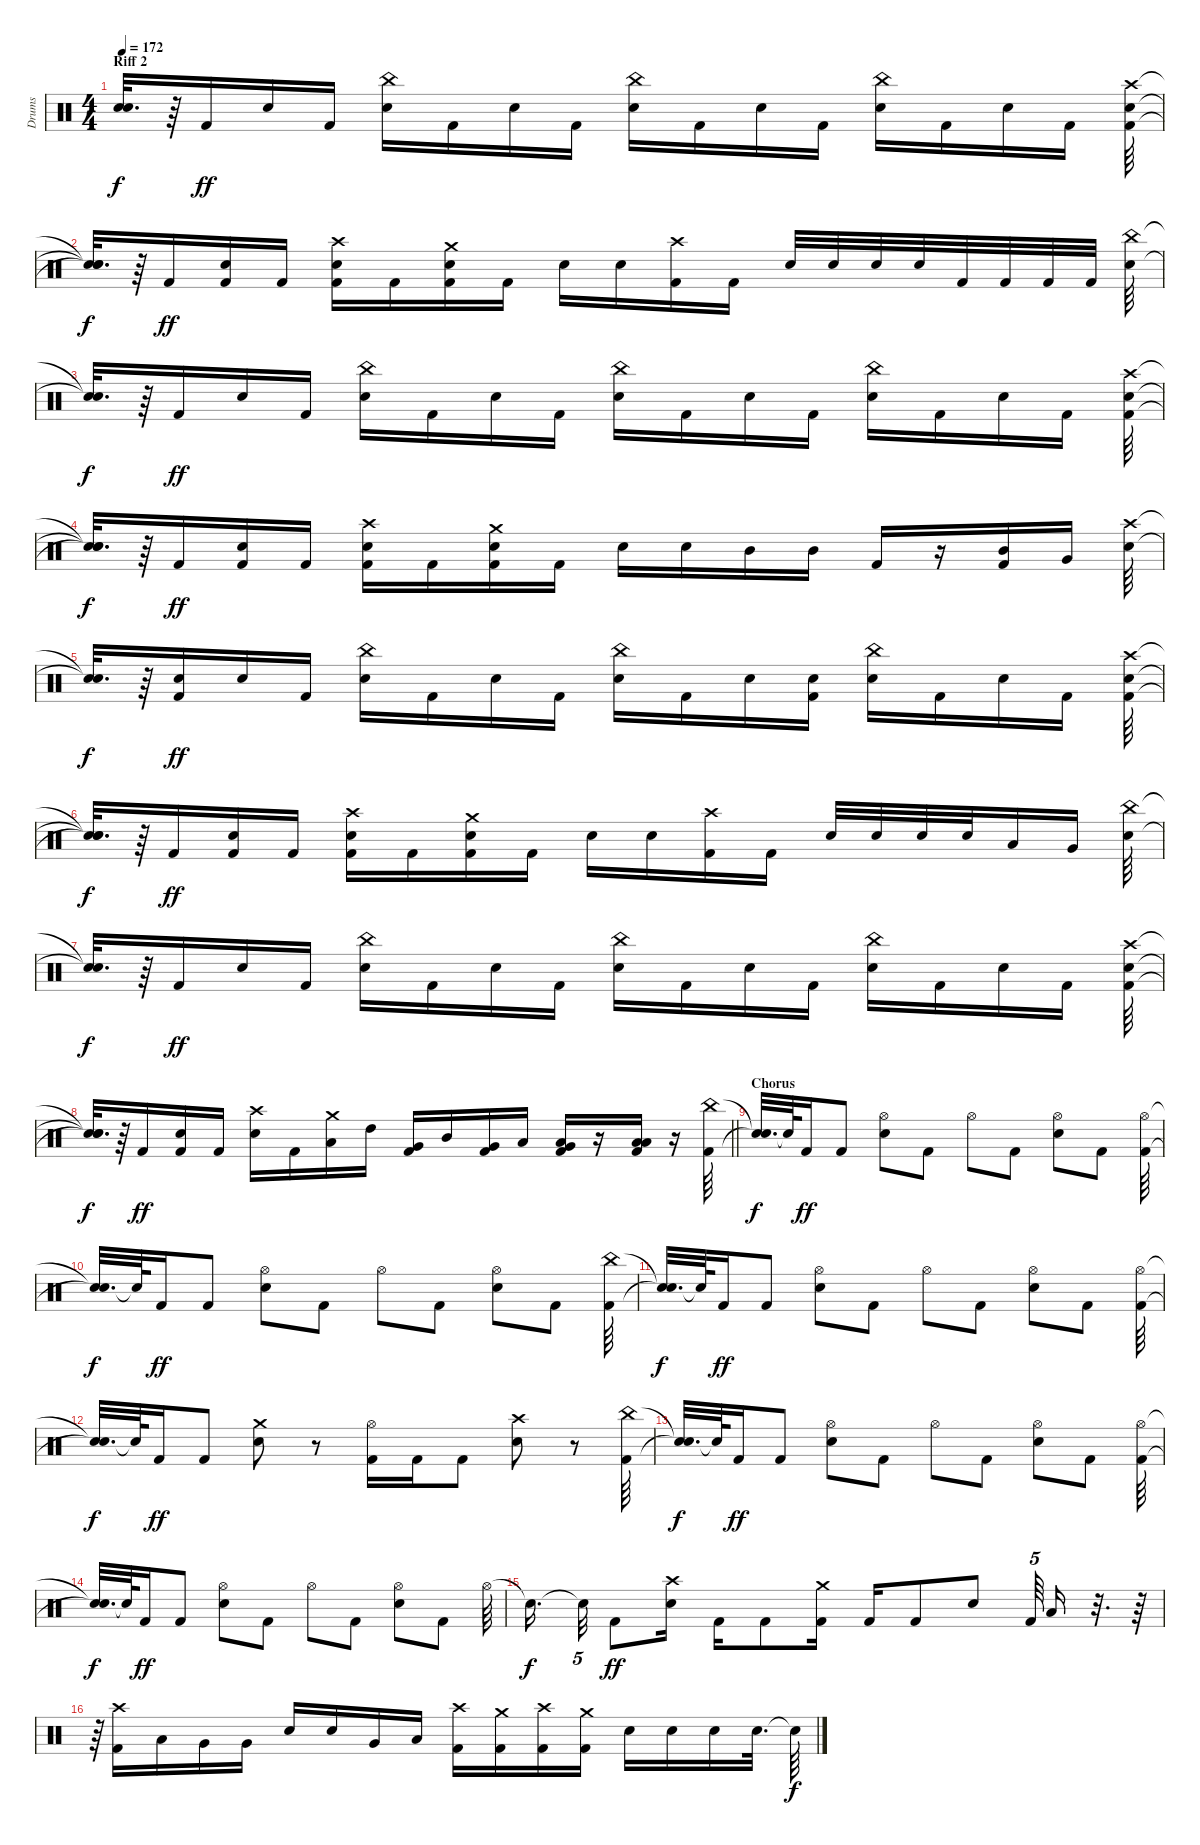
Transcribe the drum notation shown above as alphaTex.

\track ("Drums" "Drums") {instrument percussion}
\staff {score}
\articulation defaults
\ts (4 4)
\section ("" "Riff 2")
\tempo 172
\clef neutral
\ks c
("Snare (hit)"{t} "Snare (hit)"{t}).32{d dy f} r.64 "Kick (hit) 2".16{dy ff} "Snare (hit) 2".16 "Kick (hit) 2".16 ("China (hit)" "Snare (hit) 2").16 "Kick (hit) 2".16 "Snare (hit) 2".16 "Kick (hit) 2".16 ("China (hit)" "Snare (hit) 2").16 "Kick (hit) 2".16 "Snare (hit) 2".16 "Kick (hit) 2".16 ("China (hit)" "Snare (hit) 2").16 "Kick (hit) 2".16 "Snare (hit) 2".16 "Kick (hit) 2".16 ("Crash high (hit)" "Kick (hit) 2" "Snare (hit) 2").64 |
("Snare (hit)"{t} "Snare (hit)"{t} "Snare (hit)"{t}).32{d dy f} r.64 "Kick (hit) 2".16{dy ff} ("Kick (hit) 2" "Snare (hit) 2").16 "Kick (hit) 2".16 ("Crash high (hit)" "Kick (hit) 2" "Snare (hit) 2").16 "Kick (hit) 2".16 ("Crash medium (hit)" "Kick (hit) 2" "Snare (hit) 2").16 "Kick (hit) 2".16 "Snare (hit) 2".16 "Snare (hit) 2".16 ("Crash high (hit)" "Kick (hit) 2").16 "Kick (hit) 2".16 "Snare (hit) 2".32 "Snare (hit) 2".32 "Snare (hit) 2".32 "Snare (hit) 2".32 "Kick (hit) 2".32 "Kick (hit) 2".32 "Kick (hit) 2".32 "Kick (hit) 2".32 ("China (hit)" "Snare (hit) 2").64 |
("Snare (hit)"{t} "Snare (hit)"{t}).32{d dy f} r.64 "Kick (hit) 2".16{dy ff} "Snare (hit) 2".16 "Kick (hit) 2".16 ("China (hit)" "Snare (hit) 2").16 "Kick (hit) 2".16 "Snare (hit) 2".16 "Kick (hit) 2".16 ("China (hit)" "Snare (hit) 2").16 "Kick (hit) 2".16 "Snare (hit) 2".16 "Kick (hit) 2".16 ("China (hit)" "Snare (hit) 2").16 "Kick (hit) 2".16 "Snare (hit) 2".16 "Kick (hit) 2".16 ("Crash high (hit)" "Kick (hit) 2" "Snare (hit) 2").64 |
("Snare (hit)"{t} "Snare (hit)"{t} "Snare (hit)"{t}).32{d dy f} r.64 "Kick (hit) 2".16{dy ff} ("Kick (hit) 2" "Snare (hit) 2").16 "Kick (hit) 2".16 ("Crash high (hit)" "Kick (hit) 2" "Snare (hit) 2").16 "Kick (hit) 2".16 ("Crash medium (hit)" "Kick (hit) 2" "Snare (hit) 2").16 "Kick (hit) 2".16 "Snare (hit) 2".16 "Snare (hit) 2".16 "Mid Tom (hit)".16 "Mid Tom (hit)".16 "Kick (hit) 2".16 r.16 ("Kick (hit) 2" "Mid Tom (hit)").16 "Very Low Tom (hit)".16 ("Crash high (hit)" "Snare (hit) 2").64 |
("Snare (hit)"{t} "Snare (hit)"{t}).32{d dy f} r.64 ("Kick (hit) 2" "Snare (hit) 2").16{dy ff} "Snare (hit) 2".16 "Kick (hit) 2".16 ("China (hit)" "Snare (hit) 2").16 "Kick (hit) 2".16 "Snare (hit) 2".16 "Kick (hit) 2".16 ("China (hit)" "Snare (hit) 2").16 "Kick (hit) 2".16 "Snare (hit) 2".16 ("Kick (hit) 2" "Snare (hit) 2").16 ("China (hit)" "Snare (hit) 2").16 "Kick (hit) 2".16 "Snare (hit) 2".16 "Kick (hit) 2".16 ("Crash high (hit)" "Kick (hit) 2" "Snare (hit) 2").64 |
("Snare (hit)"{t} "Snare (hit)"{t} "Snare (hit)"{t}).32{d dy f} r.64 "Kick (hit) 2".16{dy ff} ("Kick (hit) 2" "Snare (hit) 2").16 "Kick (hit) 2".16 ("Crash high (hit)" "Kick (hit) 2" "Snare (hit) 2").16 "Kick (hit) 2".16 ("Crash medium (hit)" "Kick (hit) 2" "Snare (hit) 2").16 "Kick (hit) 2".16 "Snare (hit) 2".16 "Snare (hit) 2".16 ("Crash high (hit)" "Kick (hit) 2").16 "Kick (hit) 2".16 "Snare (hit) 2".32 "Snare (hit) 2".32 "Snare (hit) 2".32 "Snare (hit) 2".32 "Low Tom (hit)".16 "Very Low Tom (hit)".16 ("China (hit)" "Snare (hit) 2").64 |
("Snare (hit)"{t} "Snare (hit)"{t}).32{d dy f} r.64 "Kick (hit) 2".16{dy ff} "Snare (hit) 2".16 "Kick (hit) 2".16 ("China (hit)" "Snare (hit) 2").16 "Kick (hit) 2".16 "Snare (hit) 2".16 "Kick (hit) 2".16 ("China (hit)" "Snare (hit) 2").16 "Kick (hit) 2".16 "Snare (hit) 2".16 "Kick (hit) 2".16 ("China (hit)" "Snare (hit) 2").16 "Kick (hit) 2".16 "Snare (hit) 2".16 "Kick (hit) 2".16 ("Crash high (hit)" "Kick (hit) 2" "Snare (hit) 2").64 |
\barLineRight lightlight
("Snare (hit)"{t} "Snare (hit)"{t} "Snare (hit)"{t}).32{d dy f} r.64 "Kick (hit) 2".16{dy ff} ("Kick (hit) 2" "Snare (hit) 2").16 "Kick (hit) 2".16 ("Crash high (hit)" "Snare (hit) 2").16 "Kick (hit) 2".16 ("Crash medium (hit)" "Low Tom (hit)").16 "High Tom (hit)".16 ("Kick (hit) 2" "Very Low Tom (hit)").16 "Mid Tom (hit)".16 ("Kick (hit) 2" "Very Low Tom (hit)").16 "Low Tom (hit)".16 ("Kick (hit) 2" "Low Floor Tom (hit)" "Very Low Tom (hit)").16 r.16 ("Kick (hit) 2" "Low Floor Tom (hit)" "Low Tom (hit)").16 r.16 ("China (hit)" "Kick (hit) 2").64 |
\section ("" "Chorus")
("Snare (hit)"{t} "Snare (hit)"{t}).32{d dy f} "Snare (hit)"{t}.64 "Kick (hit) 2".16{dy ff} "Kick (hit) 2".8 ("Hi-Hat (open)" "Snare (hit) 2").8 "Kick (hit) 2".8 "Hi-Hat (open)".8 "Kick (hit) 2".8 ("Hi-Hat (open)" "Snare (hit) 2").8 "Kick (hit) 2".8 ("Hi-Hat (open)" "Kick (hit) 2").64 |
("Snare (hit)"{t} "Snare (hit)"{t}).32{d dy f} "Snare (hit)"{t}.64 "Kick (hit) 2".16{dy ff} "Kick (hit) 2".8 ("Hi-Hat (open)" "Snare (hit) 2").8 "Kick (hit) 2".8 "Hi-Hat (open)".8 "Kick (hit) 2".8 ("Hi-Hat (open)" "Snare (hit) 2").8 "Kick (hit) 2".8 ("China (hit)" "Kick (hit) 2").64 |
("Snare (hit)"{t} "Snare (hit)"{t}).32{d dy f} "Snare (hit)"{t}.64 "Kick (hit) 2".16{dy ff} "Kick (hit) 2".8 ("Hi-Hat (open)" "Snare (hit) 2").8 "Kick (hit) 2".8 "Hi-Hat (open)".8 "Kick (hit) 2".8 ("Hi-Hat (open)" "Snare (hit) 2").8 "Kick (hit) 2".8 ("Hi-Hat (open)" "Kick (hit) 2").64 |
("Snare (hit)"{t} "Snare (hit)"{t}).32{d dy f} "Snare (hit)"{t}.64 "Kick (hit) 2".16{dy ff} "Kick (hit) 2".8 ("Crash medium (hit)" "Snare (hit) 2").8 r.8 ("Hi-Hat (open)" "Kick (hit) 2").16 "Kick (hit) 2".16 "Kick (hit) 2".8 ("Crash high (hit)" "Snare (hit) 2").8 r.8 ("China (hit)" "Kick (hit) 2").64 |
("Snare (hit)"{t} "Snare (hit)"{t}).32{d dy f} "Snare (hit)"{t}.64 "Kick (hit) 2".16{dy ff} "Kick (hit) 2".8 ("Hi-Hat (open)" "Snare (hit) 2").8 "Kick (hit) 2".8 "Hi-Hat (open)".8 "Kick (hit) 2".8 ("Hi-Hat (open)" "Snare (hit) 2").8 "Kick (hit) 2".8 ("Hi-Hat (open)" "Kick (hit) 2").64 |
("Snare (hit)"{t} "Snare (hit)"{t}).32{d dy f} "Snare (hit)"{t}.64 "Kick (hit) 2".16{dy ff} "Kick (hit) 2".8 ("Hi-Hat (open)" "Snare (hit) 2").8 "Kick (hit) 2".8 "Hi-Hat (open)".8 "Kick (hit) 2".8 ("Hi-Hat (open)" "Snare (hit) 2").8 "Kick (hit) 2".8 "Hi-Hat (open)".64 |
"Snare (hit)"{t}.16{d dy f beam splitsecondary} "Snare (hit)"{t}.32{tu (5 4)} "Kick (hit) 2".8{dy ff} ("Crash high (hit)" "Snare (hit) 2").16 "Kick (hit) 2".16 "Kick (hit) 2".8 ("Crash medium (hit)" "Kick (hit) 2").16 "Kick (hit) 2".16 "Kick (hit) 2".8 "Snare (hit) 2".8 "Kick (hit) 2".64{tu (5 4)} "Low Tom (hit)".16 r.32{d} r.64 |
r.64 ("Crash high (hit)" "Kick (hit) 2").16 "Low Tom (hit)".16 "Very Low Tom (hit)".16 "Very Low Tom (hit)".16 "Snare (hit) 2".16 "Snare (hit) 2".16 "Very Low Tom (hit)".16 "Low Floor Tom (hit)".16 ("Crash high (hit)" "Kick (hit) 2").16 ("Crash medium (hit)" "Kick (hit) 2").16 ("Crash high (hit)" "Kick (hit) 2").16 ("Crash medium (hit)" "Kick (hit) 2").16 "Snare (hit) 2".16 "Snare (hit) 2".16 "Snare (hit) 2".16 "Snare (hit) 2".32{d} "Snare (hit)"{t}.64{dy f}
